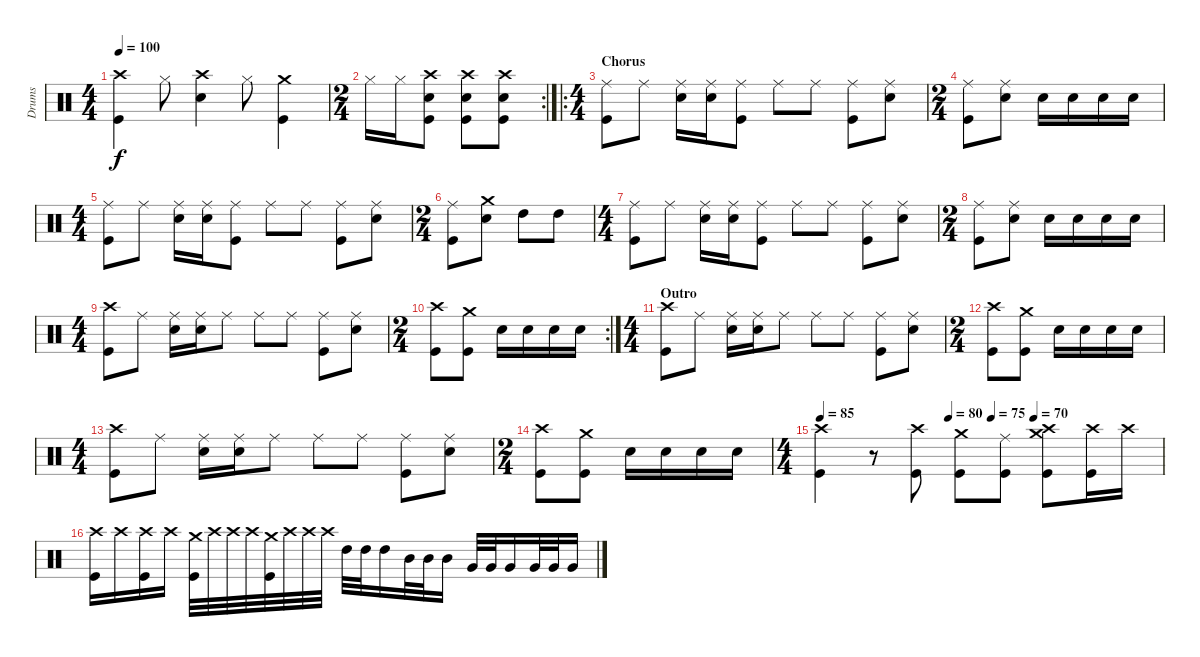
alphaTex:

\track ("Drums" "Drums") {instrument percussion}
\staff {score}
\articulation defaults
\ts (4 4)
\tempo 100
\clef neutral
\ks c
("Crash high (hit)" "Kick (hit)").4{dy f} "Hi-Hat (closed)".8 ("Crash high (hit)" "Electric Snare (hit)").4 "Hi-Hat (closed)".8 ("Crash medium (hit)" "Kick (hit)").4 |
\rc 2
\ts (2 4)
"Hi-Hat (closed)".16 "Hi-Hat (closed)".16 ("Crash high (hit)" "Electric Snare (hit)" "Kick (hit)").8 ("Crash high (hit)" "Electric Snare (hit)" "Kick (hit)").8 ("Crash high (hit)" "Electric Snare (hit)" "Kick (hit)").8 |
\ro
\ts (4 4)
\section ("" "Chorus")
("Ride (middle)" "Kick (hit)").8 "Ride (middle)".8 ("Ride (middle)" "Electric Snare (hit)").16 ("Ride (middle)" "Electric Snare (hit)").16 ("Ride (middle)" "Kick (hit)").8 "Ride (middle)".8 "Ride (middle)".8 ("Ride (middle)" "Kick (hit)").8 ("Ride (middle)" "Electric Snare (hit)").8 |
\ts (2 4)
("Ride (middle)" "Kick (hit)").8 ("Ride (middle)" "Electric Snare (hit)").8 "Electric Snare (hit)".16 "Electric Snare (hit)".16 "Electric Snare (hit)".16 "Electric Snare (hit)".16 |
\ts (4 4)
("Ride (middle)" "Kick (hit)").8 "Ride (middle)".8 ("Ride (middle)" "Electric Snare (hit)").16 ("Ride (middle)" "Electric Snare (hit)").16 ("Ride (middle)" "Kick (hit)").8 "Ride (middle)".8 "Ride (middle)".8 ("Ride (middle)" "Kick (hit)").8 ("Ride (middle)" "Electric Snare (hit)").8 |
\ts (2 4)
("Ride (middle)" "Kick (hit)").8 ("Crash medium (hit)" "Electric Snare (hit)").8 "High Tom (hit)".8 "High Tom (hit)".8 |
\ts (4 4)
("Ride (middle)" "Kick (hit)").8 "Ride (middle)".8 ("Ride (middle)" "Electric Snare (hit)").16 ("Ride (middle)" "Electric Snare (hit)").16 ("Ride (middle)" "Kick (hit)").8 "Ride (middle)".8 "Ride (middle)".8 ("Ride (middle)" "Kick (hit)").8 ("Ride (middle)" "Electric Snare (hit)").8 |
\ts (2 4)
("Ride (middle)" "Kick (hit)").8 ("Ride (middle)" "Electric Snare (hit)").8 "Electric Snare (hit)".16 "Electric Snare (hit)".16 "Electric Snare (hit)".16 "Electric Snare (hit)".16 |
\ts (4 4)
("Crash high (hit)" "Kick (hit)").8 "Ride (middle)".8 ("Ride (middle)" "Electric Snare (hit)").16 ("Ride (middle)" "Electric Snare (hit)").16 "Ride (middle)".8 "Ride (middle)".8 "Ride (middle)".8 ("Ride (middle)" "Kick (hit)").8 ("Ride (middle)" "Electric Snare (hit)").8 |
\rc 2
\ts (2 4)
("Crash high (hit)" "Kick (hit)").8 ("Crash medium (hit)" "Kick (hit)").8 "Electric Snare (hit)".16 "Electric Snare (hit)".16 "Electric Snare (hit)".16 "Electric Snare (hit)".16 |
\ts (4 4)
\section ("" "Outro")
("Crash high (hit)" "Kick (hit)").8 "Ride (middle)".8 ("Ride (middle)" "Electric Snare (hit)").16 ("Ride (middle)" "Electric Snare (hit)").16 "Ride (middle)".8 "Ride (middle)".8 "Ride (middle)".8 ("Ride (middle)" "Kick (hit)").8 ("Ride (middle)" "Electric Snare (hit)").8 |
\ts (2 4)
("Crash high (hit)" "Kick (hit)").8 ("Crash medium (hit)" "Kick (hit)").8 "Electric Snare (hit)".16 "Electric Snare (hit)".16 "Electric Snare (hit)".16 "Electric Snare (hit)".16 |
\ts (4 4)
("Crash high (hit)" "Kick (hit)").8 "Ride (middle)".8 ("Ride (middle)" "Electric Snare (hit)").16 ("Ride (middle)" "Electric Snare (hit)").16 "Ride (middle)".8 "Ride (middle)".8 "Ride (middle)".8 ("Ride (middle)" "Kick (hit)").8 ("Ride (middle)" "Electric Snare (hit)").8 |
\ts (2 4)
("Crash high (hit)" "Kick (hit)").8 ("Crash medium (hit)" "Kick (hit)").8 "Electric Snare (hit)".16 "Electric Snare (hit)".16 "Electric Snare (hit)".16 "Electric Snare (hit)".16 |
\ts (4 4)
\tempo 85
\tempo (80 0.375)
\tempo (75 0.5)
\tempo (70 0.625)
("Crash high (hit)" "Kick (hit)").4 r.8 ("Crash high (hit)" "Kick (hit)").8 ("Crash medium (hit)" "Kick (hit)").8 ("Ride (middle)" "Kick (hit)").8 ("Crash high (hit)" "Crash medium (hit)" "Kick (hit)").8 ("Crash high (hit)" "Kick (hit)").16 "Crash high (hit)".16 |
("Crash high (hit)" "Kick (hit)").16 "Crash high (hit)".16 ("Crash high (hit)" "Kick (hit)").16 "Crash high (hit)".16 ("Crash medium (hit)" "Kick (hit)").32 "Crash high (hit)".32 "Crash high (hit)".32 "Crash high (hit)".32 ("Crash medium (hit)" "Kick (hit)").32 "Crash high (hit)".32 "Crash high (hit)".32 "Crash high (hit)".32 "High Tom (hit)".32 "High Tom (hit)".32 "High Tom (hit)".16 "Mid Tom (hit)".32 "Mid Tom (hit)".32 "Mid Tom (hit)".16 "Very Low Tom (hit)".32 "Very Low Tom (hit)".32 "Very Low Tom (hit)".16 "Very Low Tom (hit)".32 "Very Low Tom (hit)".32 "Very Low Tom (hit)".16
